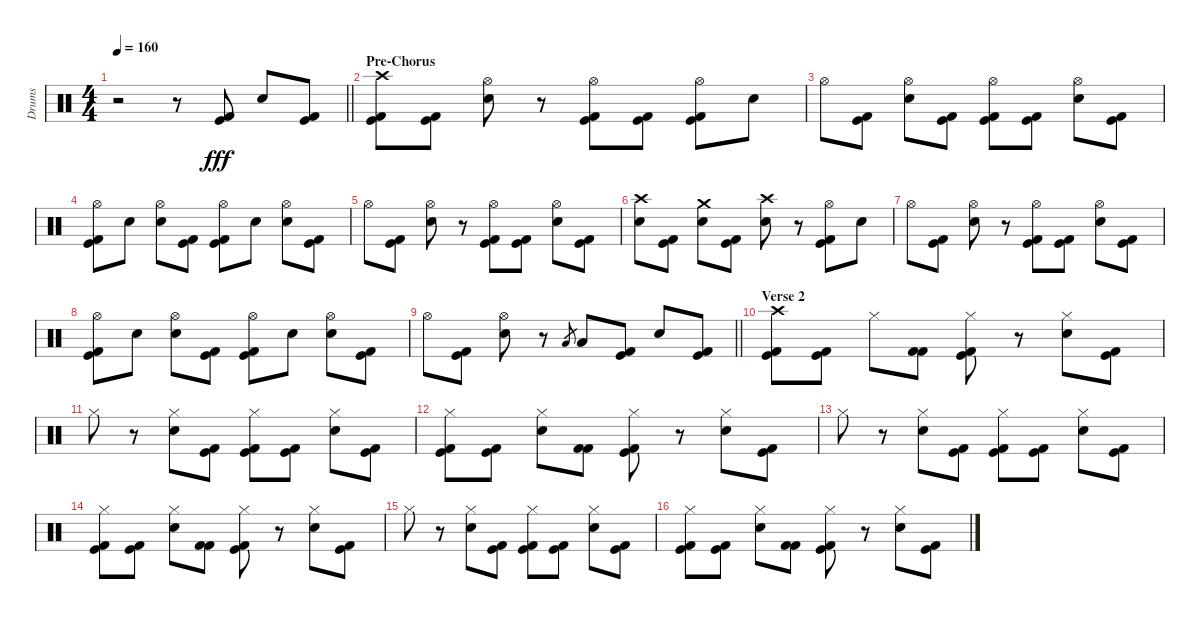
\track ("Drums" "Drums") {instrument percussion}
\staff {score}
\articulation defaults
\ts (4 4)
\tempo 160
\clef neutral
\barLineRight lightlight
\ks c
r.2{dy fff} r.8 ("Kick (hit)" "Kick (hit) 2").8 "Electric Snare (hit)".8 ("Kick (hit)" "Kick (hit) 2").8 |
\section ("" "Pre-Chorus")
("Crash high (hit)" "Kick (hit)" "Kick (hit) 2").8 ("Kick (hit)" "Kick (hit) 2").8 ("Hi-Hat (open)" "Electric Snare (hit)").8 r.8 ("Hi-Hat (open)" "Kick (hit)" "Kick (hit) 2").8 ("Kick (hit)" "Kick (hit) 2").8 ("Hi-Hat (open)" "Kick (hit)" "Kick (hit) 2").8 "Electric Snare (hit)".8 |
"Hi-Hat (open)".8 ("Kick (hit)" "Kick (hit) 2").8 ("Hi-Hat (open)" "Electric Snare (hit)").8 ("Kick (hit)" "Kick (hit) 2").8 ("Hi-Hat (open)" "Kick (hit)" "Kick (hit) 2").8 ("Kick (hit)" "Kick (hit) 2").8 ("Hi-Hat (open)" "Electric Snare (hit)").8 ("Kick (hit)" "Kick (hit) 2").8 |
("Hi-Hat (open)" "Kick (hit)" "Kick (hit) 2").8 "Electric Snare (hit)".8 ("Hi-Hat (open)" "Electric Snare (hit)").8 ("Kick (hit)" "Kick (hit) 2").8 ("Hi-Hat (open)" "Kick (hit)" "Kick (hit) 2").8 "Electric Snare (hit)".8 ("Hi-Hat (open)" "Electric Snare (hit)").8 ("Kick (hit)" "Kick (hit) 2").8 |
"Hi-Hat (open)".8 ("Kick (hit)" "Kick (hit) 2").8 ("Hi-Hat (open)" "Electric Snare (hit)").8 r.8 ("Hi-Hat (open)" "Kick (hit)" "Kick (hit) 2").8 ("Kick (hit)" "Kick (hit) 2").8 ("Hi-Hat (open)" "Electric Snare (hit)").8 ("Kick (hit)" "Kick (hit) 2").8 |
("Crash high (hit)" "Electric Snare (hit)").8 ("Kick (hit)" "Kick (hit) 2").8 ("Crash medium (hit)" "Electric Snare (hit)").8 ("Kick (hit)" "Kick (hit) 2").8 ("Crash high (hit)" "Electric Snare (hit)").8 r.8 ("Hi-Hat (open)" "Kick (hit)" "Kick (hit) 2").8 "Electric Snare (hit)".8 |
"Hi-Hat (open)".8 ("Kick (hit)" "Kick (hit) 2").8 ("Hi-Hat (open)" "Electric Snare (hit)").8 r.8 ("Hi-Hat (open)" "Kick (hit)" "Kick (hit) 2").8 ("Kick (hit)" "Kick (hit) 2").8 ("Hi-Hat (open)" "Electric Snare (hit)").8 ("Kick (hit)" "Kick (hit) 2").8 |
("Hi-Hat (open)" "Kick (hit)" "Kick (hit) 2").8 "Electric Snare (hit)".8 ("Hi-Hat (open)" "Electric Snare (hit)").8 ("Kick (hit)" "Kick (hit) 2").8 ("Hi-Hat (open)" "Kick (hit)" "Kick (hit) 2").8 "Electric Snare (hit)".8 ("Hi-Hat (open)" "Electric Snare (hit)").8 ("Kick (hit)" "Kick (hit) 2").8 |
\barLineRight lightlight "Hi-Hat (open)".8
("Kick (hit)" "Kick (hit) 2").8 ("Hi-Hat (open)" "Electric Snare (hit)").8 r.8 "Low Floor Tom (hit)".8{gr} "Low Floor Tom (hit)".8 ("Kick (hit)" "Kick (hit) 2").8 "Electric Snare (hit)".8 ("Kick (hit)" "Kick (hit) 2").8 |
\section ("" "Verse 2")
("Crash high (hit)" "Kick (hit)" "Kick (hit) 2").8 ("Kick (hit)" "Kick (hit) 2").8 "Hi-Hat (closed)".8 ("Kick (hit) 2" "Kick (hit) 2").8 ("Hi-Hat (closed)" "Kick (hit)" "Kick (hit) 2").8 r.8 ("Hi-Hat (closed)" "Electric Snare (hit)").8 ("Kick (hit)" "Kick (hit) 2").8 |
"Hi-Hat (closed)".8 r.8 ("Hi-Hat (closed)" "Electric Snare (hit)").8 ("Kick (hit)" "Kick (hit) 2").8 ("Hi-Hat (closed)" "Kick (hit)" "Kick (hit) 2").8 ("Kick (hit)" "Kick (hit) 2").8 ("Hi-Hat (closed)" "Electric Snare (hit)").8 ("Kick (hit)" "Kick (hit) 2").8 |
("Hi-Hat (closed)" "Kick (hit)" "Kick (hit) 2").8 ("Kick (hit)" "Kick (hit) 2").8 ("Hi-Hat (closed)" "Electric Snare (hit)").8 ("Kick (hit) 2" "Kick (hit) 2").8 ("Hi-Hat (closed)" "Kick (hit)" "Kick (hit) 2").8 r.8 ("Hi-Hat (closed)" "Electric Snare (hit)").8 ("Kick (hit)" "Kick (hit) 2").8 |
"Hi-Hat (closed)".8 r.8 ("Hi-Hat (closed)" "Electric Snare (hit)").8 ("Kick (hit)" "Kick (hit) 2").8 ("Hi-Hat (closed)" "Kick (hit)" "Kick (hit) 2").8 ("Kick (hit)" "Kick (hit) 2").8 ("Hi-Hat (closed)" "Electric Snare (hit)").8 ("Kick (hit)" "Kick (hit) 2").8 |
("Hi-Hat (closed)" "Kick (hit)" "Kick (hit) 2").8 ("Kick (hit)" "Kick (hit) 2").8 ("Hi-Hat (closed)" "Electric Snare (hit)").8 ("Kick (hit) 2" "Kick (hit) 2").8 ("Hi-Hat (closed)" "Kick (hit)" "Kick (hit) 2").8 r.8 ("Hi-Hat (closed)" "Electric Snare (hit)").8 ("Kick (hit)" "Kick (hit) 2").8 |
"Hi-Hat (closed)".8 r.8 ("Hi-Hat (closed)" "Electric Snare (hit)").8 ("Kick (hit)" "Kick (hit) 2").8 ("Hi-Hat (closed)" "Kick (hit)" "Kick (hit) 2").8 ("Kick (hit)" "Kick (hit) 2").8 ("Hi-Hat (closed)" "Electric Snare (hit)").8 ("Kick (hit)" "Kick (hit) 2").8 |
("Hi-Hat (closed)" "Kick (hit)" "Kick (hit) 2").8 ("Kick (hit)" "Kick (hit) 2").8 ("Hi-Hat (closed)" "Electric Snare (hit)").8 ("Kick (hit) 2" "Kick (hit) 2").8 ("Hi-Hat (closed)" "Kick (hit)" "Kick (hit) 2").8 r.8 ("Hi-Hat (closed)" "Electric Snare (hit)").8 ("Kick (hit)" "Kick (hit) 2").8
